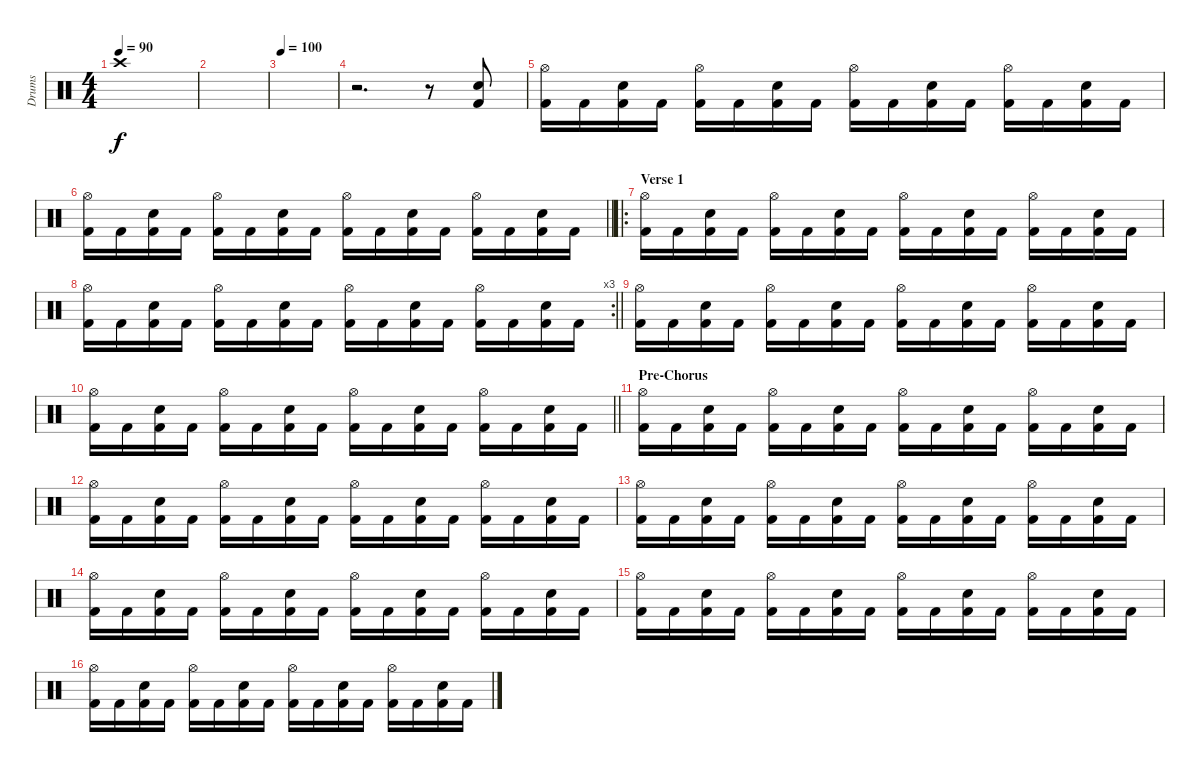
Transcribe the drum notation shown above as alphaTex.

\track ("Drums" "Drums") {instrument percussion}
\staff {score}
\articulation defaults
\ts (4 4)
\tempo 90
\clef neutral
\ks c "Crash high (hit)".1{dy f}
|
|
\tempo 100
|
r.2{d volume 13} r.8 ("Snare (hit) 2" "Kick (hit) 2").8 |
("Hi-Hat (open)" "Kick (hit) 2").16 "Kick (hit) 2".16 ("Snare (hit) 2" "Kick (hit) 2").16 "Kick (hit) 2".16 ("Hi-Hat (open)" "Kick (hit) 2").16 "Kick (hit) 2".16 ("Snare (hit) 2" "Kick (hit) 2").16 "Kick (hit) 2".16 ("Hi-Hat (open)" "Kick (hit) 2").16 "Kick (hit) 2".16 ("Snare (hit) 2" "Kick (hit) 2").16 "Kick (hit) 2".16 ("Hi-Hat (open)" "Kick (hit) 2").16 "Kick (hit) 2".16 ("Snare (hit) 2" "Kick (hit) 2").16 "Kick (hit) 2".16 |
\barLineRight lightlight
("Hi-Hat (open)" "Kick (hit) 2").16 "Kick (hit) 2".16 ("Snare (hit) 2" "Kick (hit) 2").16 "Kick (hit) 2".16 ("Hi-Hat (open)" "Kick (hit) 2").16 "Kick (hit) 2".16 ("Snare (hit) 2" "Kick (hit) 2").16 "Kick (hit) 2".16 ("Hi-Hat (open)" "Kick (hit) 2").16 "Kick (hit) 2".16 ("Snare (hit) 2" "Kick (hit) 2").16 "Kick (hit) 2".16 ("Hi-Hat (open)" "Kick (hit) 2").16 "Kick (hit) 2".16 ("Snare (hit) 2" "Kick (hit) 2").16 "Kick (hit) 2".16 |
\ro
\section ("" "Verse 1")
("Hi-Hat (open)" "Kick (hit) 2").16 "Kick (hit) 2".16 ("Snare (hit) 2" "Kick (hit) 2").16 "Kick (hit) 2".16 ("Hi-Hat (open)" "Kick (hit) 2").16 "Kick (hit) 2".16 ("Snare (hit) 2" "Kick (hit) 2").16 "Kick (hit) 2".16 ("Hi-Hat (open)" "Kick (hit) 2").16 "Kick (hit) 2".16 ("Snare (hit) 2" "Kick (hit) 2").16 "Kick (hit) 2".16 ("Hi-Hat (open)" "Kick (hit) 2").16 "Kick (hit) 2".16 ("Snare (hit) 2" "Kick (hit) 2").16 "Kick (hit) 2".16 |
\rc 3
\barLineRight lightlight
("Hi-Hat (open)" "Kick (hit) 2").16 "Kick (hit) 2".16 ("Snare (hit) 2" "Kick (hit) 2").16 "Kick (hit) 2".16 ("Hi-Hat (open)" "Kick (hit) 2").16 "Kick (hit) 2".16 ("Snare (hit) 2" "Kick (hit) 2").16 "Kick (hit) 2".16 ("Hi-Hat (open)" "Kick (hit) 2").16 "Kick (hit) 2".16 ("Snare (hit) 2" "Kick (hit) 2").16 "Kick (hit) 2".16 ("Hi-Hat (open)" "Kick (hit) 2").16 "Kick (hit) 2".16 ("Snare (hit) 2" "Kick (hit) 2").16 "Kick (hit) 2".16 |
("Hi-Hat (open)" "Kick (hit) 2").16 "Kick (hit) 2".16 ("Snare (hit) 2" "Kick (hit) 2").16 "Kick (hit) 2".16 ("Hi-Hat (open)" "Kick (hit) 2").16 "Kick (hit) 2".16 ("Snare (hit) 2" "Kick (hit) 2").16 "Kick (hit) 2".16 ("Hi-Hat (open)" "Kick (hit) 2").16 "Kick (hit) 2".16 ("Snare (hit) 2" "Kick (hit) 2").16 "Kick (hit) 2".16 ("Hi-Hat (open)" "Kick (hit) 2").16 "Kick (hit) 2".16 ("Snare (hit) 2" "Kick (hit) 2").16 "Kick (hit) 2".16 |
\barLineRight lightlight
("Hi-Hat (open)" "Kick (hit) 2").16 "Kick (hit) 2".16 ("Snare (hit) 2" "Kick (hit) 2").16 "Kick (hit) 2".16 ("Hi-Hat (open)" "Kick (hit) 2").16 "Kick (hit) 2".16 ("Snare (hit) 2" "Kick (hit) 2").16 "Kick (hit) 2".16 ("Hi-Hat (open)" "Kick (hit) 2").16 "Kick (hit) 2".16 ("Snare (hit) 2" "Kick (hit) 2").16 "Kick (hit) 2".16 ("Hi-Hat (open)" "Kick (hit) 2").16 "Kick (hit) 2".16 ("Snare (hit) 2" "Kick (hit) 2").16 "Kick (hit) 2".16 |
\section ("" "Pre-Chorus")
("Hi-Hat (open)" "Kick (hit) 2").16 "Kick (hit) 2".16 ("Snare (hit) 2" "Kick (hit) 2").16 "Kick (hit) 2".16 ("Hi-Hat (open)" "Kick (hit) 2").16 "Kick (hit) 2".16 ("Snare (hit) 2" "Kick (hit) 2").16 "Kick (hit) 2".16 ("Hi-Hat (open)" "Kick (hit) 2").16 "Kick (hit) 2".16 ("Snare (hit) 2" "Kick (hit) 2").16 "Kick (hit) 2".16 ("Hi-Hat (open)" "Kick (hit) 2").16 "Kick (hit) 2".16 ("Snare (hit) 2" "Kick (hit) 2").16 "Kick (hit) 2".16 |
("Hi-Hat (open)" "Kick (hit) 2").16 "Kick (hit) 2".16 ("Snare (hit) 2" "Kick (hit) 2").16 "Kick (hit) 2".16 ("Hi-Hat (open)" "Kick (hit) 2").16 "Kick (hit) 2".16 ("Snare (hit) 2" "Kick (hit) 2").16 "Kick (hit) 2".16 ("Hi-Hat (open)" "Kick (hit) 2").16 "Kick (hit) 2".16 ("Snare (hit) 2" "Kick (hit) 2").16 "Kick (hit) 2".16 ("Hi-Hat (open)" "Kick (hit) 2").16 "Kick (hit) 2".16 ("Snare (hit) 2" "Kick (hit) 2").16 "Kick (hit) 2".16 |
("Hi-Hat (open)" "Kick (hit) 2").16 "Kick (hit) 2".16 ("Snare (hit) 2" "Kick (hit) 2").16 "Kick (hit) 2".16 ("Hi-Hat (open)" "Kick (hit) 2").16 "Kick (hit) 2".16 ("Snare (hit) 2" "Kick (hit) 2").16 "Kick (hit) 2".16 ("Hi-Hat (open)" "Kick (hit) 2").16 "Kick (hit) 2".16 ("Snare (hit) 2" "Kick (hit) 2").16 "Kick (hit) 2".16 ("Hi-Hat (open)" "Kick (hit) 2").16 "Kick (hit) 2".16 ("Snare (hit) 2" "Kick (hit) 2").16 "Kick (hit) 2".16 |
("Hi-Hat (open)" "Kick (hit) 2").16 "Kick (hit) 2".16 ("Snare (hit) 2" "Kick (hit) 2").16 "Kick (hit) 2".16 ("Hi-Hat (open)" "Kick (hit) 2").16 "Kick (hit) 2".16 ("Snare (hit) 2" "Kick (hit) 2").16 "Kick (hit) 2".16 ("Hi-Hat (open)" "Kick (hit) 2").16 "Kick (hit) 2".16 ("Snare (hit) 2" "Kick (hit) 2").16 "Kick (hit) 2".16 ("Hi-Hat (open)" "Kick (hit) 2").16 "Kick (hit) 2".16 ("Snare (hit) 2" "Kick (hit) 2").16 "Kick (hit) 2".16 |
("Hi-Hat (open)" "Kick (hit) 2").16 "Kick (hit) 2".16 ("Snare (hit) 2" "Kick (hit) 2").16 "Kick (hit) 2".16 ("Hi-Hat (open)" "Kick (hit) 2").16 "Kick (hit) 2".16 ("Snare (hit) 2" "Kick (hit) 2").16 "Kick (hit) 2".16 ("Hi-Hat (open)" "Kick (hit) 2").16 "Kick (hit) 2".16 ("Snare (hit) 2" "Kick (hit) 2").16 "Kick (hit) 2".16 ("Hi-Hat (open)" "Kick (hit) 2").16 "Kick (hit) 2".16 ("Snare (hit) 2" "Kick (hit) 2").16 "Kick (hit) 2".16 |
("Hi-Hat (open)" "Kick (hit) 2").16 "Kick (hit) 2".16 ("Snare (hit) 2" "Kick (hit) 2").16 "Kick (hit) 2".16 ("Hi-Hat (open)" "Kick (hit) 2").16 "Kick (hit) 2".16 ("Snare (hit) 2" "Kick (hit) 2").16 "Kick (hit) 2".16 ("Hi-Hat (open)" "Kick (hit) 2").16 "Kick (hit) 2".16 ("Snare (hit) 2" "Kick (hit) 2").16 "Kick (hit) 2".16 ("Hi-Hat (open)" "Kick (hit) 2").16 "Kick (hit) 2".16 ("Snare (hit) 2" "Kick (hit) 2").16 "Kick (hit) 2".16
